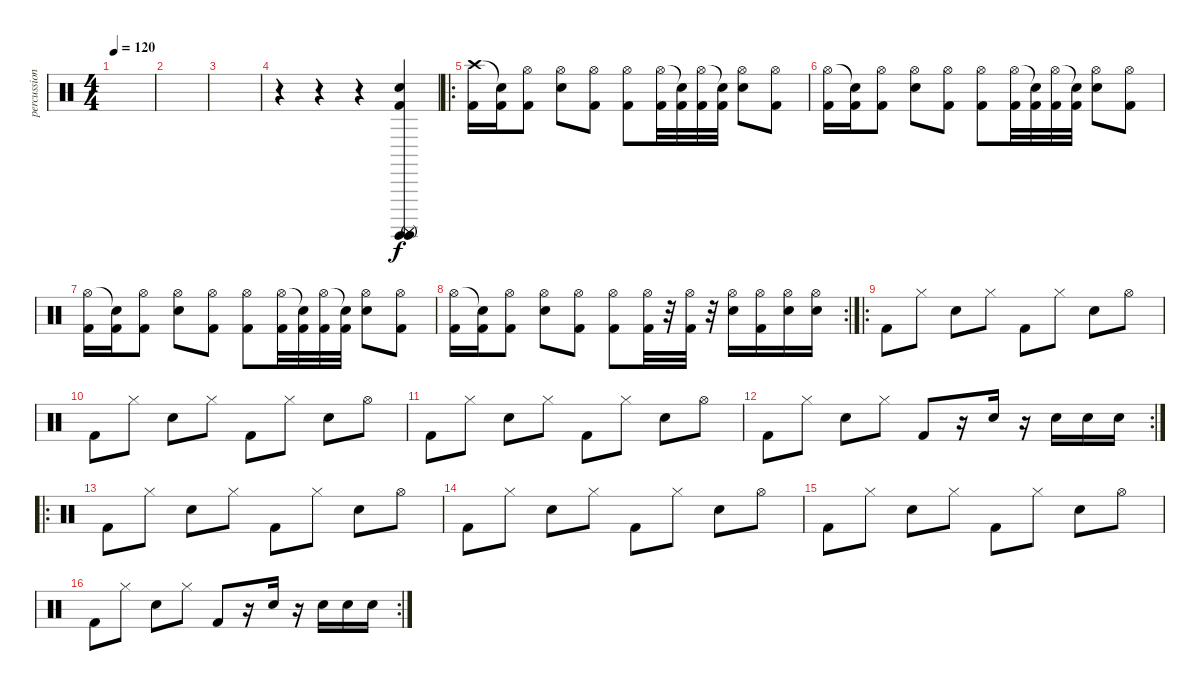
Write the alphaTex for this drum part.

\track ("percussions" "percussion") {instrument percussion}
\staff {score}
\articulation defaults
\ts (4 4)
\tempo 120
\clef neutral
\ks c
|
|
|
r.4 r.4 r.4 ("Surdo (hit)" "Surdo (hit)" "Surdo (mute)" "Electric Snare (hit)" "Kick (hit) 2" "Surdo (mute)").4 |
\ro
("Crash high (hit)" "Kick (hit) 2").16{dy f} ("Snare (hit)"{t} "Kick (hit) 2").16 ("Hi-Hat (open)" "Kick (hit) 2").8 ("Hi-Hat (open)" "Electric Snare (hit)").8 ("Hi-Hat (open)" "Kick (hit) 2").8 ("Hi-Hat (open)" "Kick (hit) 2").8 ("Hi-Hat (open)" "Kick (hit) 2").32 ("Snare (hit)"{t} "Kick (hit) 2").32 ("Hi-Hat (open)" "Kick (hit) 2").32 ("Snare (hit)"{t} "Kick (hit) 2").32 ("Hi-Hat (open)" "Electric Snare (hit)").8 ("Hi-Hat (open)" "Kick (hit) 2").8 |
("Hi-Hat (open)" "Kick (hit) 2").16 ("Snare (hit)"{t} "Kick (hit) 2").16 ("Hi-Hat (open)" "Kick (hit) 2").8 ("Hi-Hat (open)" "Electric Snare (hit)").8 ("Hi-Hat (open)" "Kick (hit) 2").8 ("Hi-Hat (open)" "Kick (hit) 2").8 ("Hi-Hat (open)" "Kick (hit) 2").32 ("Snare (hit)"{t} "Kick (hit) 2").32 ("Hi-Hat (open)" "Kick (hit) 2").32 ("Snare (hit)"{t} "Kick (hit) 2").32 ("Hi-Hat (open)" "Electric Snare (hit)").8 ("Hi-Hat (open)" "Kick (hit) 2").8 |
("Hi-Hat (open)" "Kick (hit) 2").16 ("Snare (hit)"{t} "Kick (hit) 2").16 ("Hi-Hat (open)" "Kick (hit) 2").8 ("Hi-Hat (open)" "Electric Snare (hit)").8 ("Hi-Hat (open)" "Kick (hit) 2").8 ("Hi-Hat (open)" "Kick (hit) 2").8 ("Hi-Hat (open)" "Kick (hit) 2").32 ("Snare (hit)"{t} "Kick (hit) 2").32 ("Hi-Hat (open)" "Kick (hit) 2").32 ("Snare (hit)"{t} "Kick (hit) 2").32 ("Hi-Hat (open)" "Electric Snare (hit)").8 ("Hi-Hat (open)" "Kick (hit) 2").8 |
\rc 2
("Hi-Hat (open)" "Kick (hit) 2").16 ("Snare (hit)"{t} "Kick (hit) 2").16 ("Hi-Hat (open)" "Kick (hit) 2").8 ("Hi-Hat (open)" "Electric Snare (hit)").8 ("Hi-Hat (open)" "Kick (hit) 2").8 ("Hi-Hat (open)" "Kick (hit) 2").8 ("Hi-Hat (open)" "Kick (hit) 2").32 r.32 ("Hi-Hat (open)" "Kick (hit) 2").32 r.32 ("Hi-Hat (open)" "Electric Snare (hit)").16 ("Hi-Hat (open)" "Kick (hit) 2").16 ("Hi-Hat (open)" "Electric Snare (hit)").16 ("Hi-Hat (open)" "Electric Snare (hit)").16 |
\ro "Kick (hit) 2".8 "Hi-Hat (closed)".8 "Electric Snare (hit)".8 "Hi-Hat (closed)".8 "Kick (hit) 2".8 "Hi-Hat (closed)".8 "Electric Snare (hit)".8 "Hi-Hat (open)".8
|
"Kick (hit) 2".8 "Hi-Hat (closed)".8 "Electric Snare (hit)".8 "Hi-Hat (closed)".8 "Kick (hit) 2".8 "Hi-Hat (closed)".8 "Electric Snare (hit)".8 "Hi-Hat (open)".8 |
"Kick (hit) 2".8 "Hi-Hat (closed)".8 "Electric Snare (hit)".8 "Hi-Hat (closed)".8 "Kick (hit) 2".8 "Hi-Hat (closed)".8 "Electric Snare (hit)".8 "Hi-Hat (open)".8 |
\rc 2 "Kick (hit) 2".8 "Hi-Hat (closed)".8 "Electric Snare (hit)".8 "Hi-Hat (closed)".8 "Kick (hit) 2".8
r.16 "Electric Snare (hit)".16 r.16 "Electric Snare (hit)".16 "Electric Snare (hit)".16 "Electric Snare (hit)".16 |
\ro "Kick (hit) 2".8 "Hi-Hat (closed)".8 "Electric Snare (hit)".8 "Hi-Hat (closed)".8 "Kick (hit) 2".8 "Hi-Hat (closed)".8 "Electric Snare (hit)".8 "Hi-Hat (open)".8
|
"Kick (hit) 2".8 "Hi-Hat (closed)".8 "Electric Snare (hit)".8 "Hi-Hat (closed)".8 "Kick (hit) 2".8 "Hi-Hat (closed)".8 "Electric Snare (hit)".8 "Hi-Hat (open)".8 |
"Kick (hit) 2".8 "Hi-Hat (closed)".8 "Electric Snare (hit)".8 "Hi-Hat (closed)".8 "Kick (hit) 2".8 "Hi-Hat (closed)".8 "Electric Snare (hit)".8 "Hi-Hat (open)".8 |
\rc 2 "Kick (hit) 2".8 "Hi-Hat (closed)".8 "Electric Snare (hit)".8 "Hi-Hat (closed)".8 "Kick (hit) 2".8
r.16 "Electric Snare (hit)".16 r.16 "Electric Snare (hit)".16 "Electric Snare (hit)".16 "Electric Snare (hit)".16
